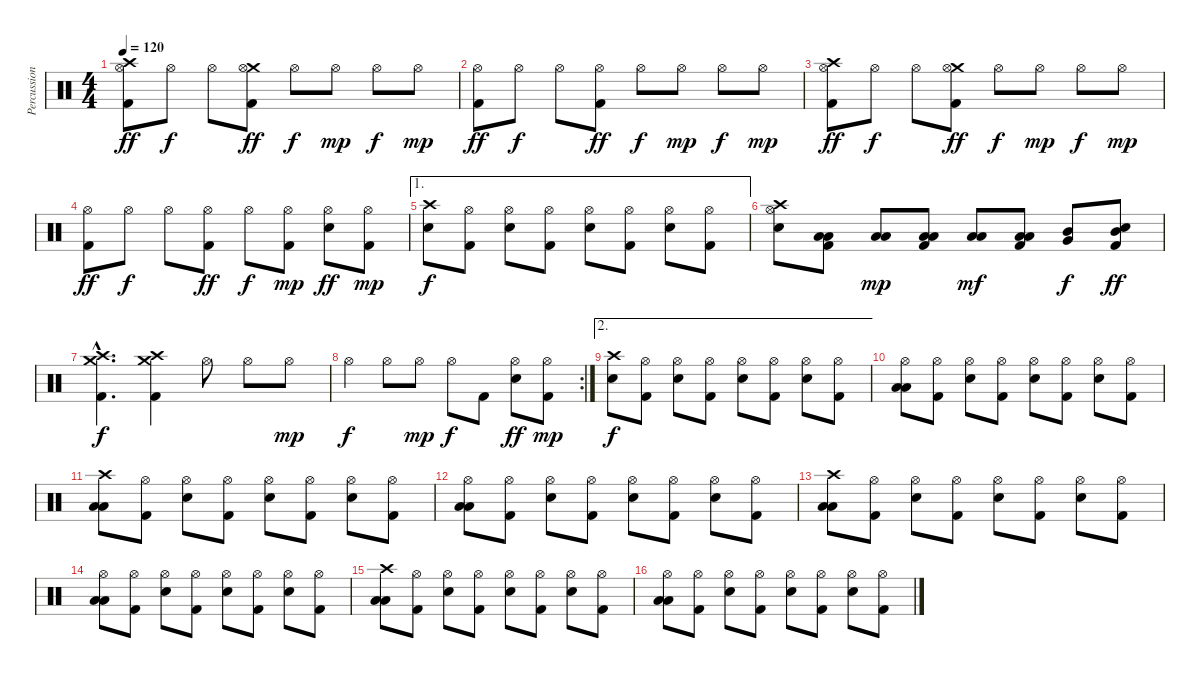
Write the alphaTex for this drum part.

\track ("Percussion" "Percussion") {instrument percussion}
\staff {score}
\articulation defaults
\ts (4 4)
\tempo 120
\clef neutral
\ks c
("Crash high (hit)" "Hi-Hat (open)" "Kick (hit) 2").8{dy ff} "Hi-Hat (open)".8{dy f} "Hi-Hat (open)".8 ("Crash medium (hit)" "Hi-Hat (open)" "Kick (hit) 2").8{dy ff} "Hi-Hat (open)".8{dy f} "Hi-Hat (open)".8{dy mp} "Hi-Hat (open)".8{dy f} "Hi-Hat (open)".8{dy mp} |
("Hi-Hat (open)" "Kick (hit) 2").8{dy ff} "Hi-Hat (open)".8{dy f} "Hi-Hat (open)".8 ("Hi-Hat (open)" "Kick (hit) 2").8{dy ff} "Hi-Hat (open)".8{dy f} "Hi-Hat (open)".8{dy mp} "Hi-Hat (open)".8{dy f} "Hi-Hat (open)".8{dy mp} |
("Crash high (hit)" "Hi-Hat (open)" "Kick (hit) 2").8{dy ff} "Hi-Hat (open)".8{dy f} "Hi-Hat (open)".8 ("Crash medium (hit)" "Hi-Hat (open)" "Kick (hit) 2").8{dy ff} "Hi-Hat (open)".8{dy f} "Hi-Hat (open)".8{dy mp} "Hi-Hat (open)".8{dy f} "Hi-Hat (open)".8{dy mp} |
("Hi-Hat (open)" "Kick (hit) 2").8{dy ff} "Hi-Hat (open)".8{dy f} "Hi-Hat (open)".8 ("Hi-Hat (open)" "Kick (hit) 2").8{dy ff} "Hi-Hat (open)".8{dy f} ("Hi-Hat (open)" "Kick (hit) 2").8{dy mp} ("Hi-Hat (open)" "Electric Snare (hit)").8{dy ff} ("Hi-Hat (open)" "Kick (hit) 2").8{dy mp} |
\ae 1
("Crash high (hit)" "Electric Snare (hit)").8{dy f} ("Hi-Hat (open)" "Kick (hit) 2").8 ("Hi-Hat (open)" "Electric Snare (hit)").8 ("Hi-Hat (open)" "Kick (hit) 2").8 ("Hi-Hat (open)" "Electric Snare (hit)").8 ("Hi-Hat (open)" "Kick (hit) 2").8 ("Hi-Hat (open)" "Electric Snare (hit)").8 ("Hi-Hat (open)" "Kick (hit) 2").8 |
("Crash high (hit)" "Hi-Hat (open)" "Electric Snare (hit)").8 ("Low Tom (hit)" "Low Floor Tom (hit)" "Kick (hit) 2").8 ("Low Tom (hit)" "Low Floor Tom (hit)").8{dy mp} ("Low Tom (hit)" "Low Floor Tom (hit)" "Kick (hit) 2").8 ("Low Tom (hit)" "Low Floor Tom (hit)").8{dy mf} ("Low Tom (hit)" "Low Floor Tom (hit)" "Kick (hit) 2").8 ("Mid Tom (hit)" "Very Low Tom (hit)").8{dy f} ("Electric Snare (hit)" "Mid Tom (hit)" "Kick (hit) 2").8{dy ff} |
("Crash high (hit)"{hac} "Crash medium (hit)"{hac} "Kick (hit) 2"{hac}).4{d dy f} ("Crash high (hit)" "Crash medium (hit)" "Kick (hit) 2").4 "Hi-Hat (open)".8 "Hi-Hat (open)".8 "Hi-Hat (open)".8{dy mp} |
\rc 2 "Hi-Hat (open)".4{dy f} "Hi-Hat (open)".8 "Hi-Hat (open)".8{dy mp} "Hi-Hat (open)".8{dy f} "Kick (hit) 2".8
("Hi-Hat (open)" "Electric Snare (hit)").8{dy ff} ("Hi-Hat (open)" "Kick (hit) 2").8{dy mp} |
\ae 2
("Crash high (hit)" "Electric Snare (hit)").8{dy f} ("Hi-Hat (open)" "Kick (hit) 2").8 ("Hi-Hat (open)" "Electric Snare (hit)").8 ("Hi-Hat (open)" "Kick (hit) 2").8 ("Hi-Hat (open)" "Electric Snare (hit)").8 ("Hi-Hat (open)" "Kick (hit) 2").8 ("Hi-Hat (open)" "Electric Snare (hit)").8 ("Hi-Hat (open)" "Kick (hit) 2").8 |
("Hi-Hat (open)" "Low Tom (hit)" "Low Floor Tom (hit)").8 ("Hi-Hat (open)" "Kick (hit) 2").8 ("Hi-Hat (open)" "Electric Snare (hit)").8 ("Hi-Hat (open)" "Kick (hit) 2").8 ("Hi-Hat (open)" "Electric Snare (hit)").8 ("Hi-Hat (open)" "Kick (hit) 2").8 ("Hi-Hat (open)" "Electric Snare (hit)").8 ("Hi-Hat (open)" "Kick (hit) 2").8 |
("Crash high (hit)" "Low Tom (hit)" "Low Floor Tom (hit)").8 ("Hi-Hat (open)" "Kick (hit) 2").8 ("Hi-Hat (open)" "Electric Snare (hit)").8 ("Hi-Hat (open)" "Kick (hit) 2").8 ("Hi-Hat (open)" "Electric Snare (hit)").8 ("Hi-Hat (open)" "Kick (hit) 2").8 ("Hi-Hat (open)" "Electric Snare (hit)").8 ("Hi-Hat (open)" "Kick (hit) 2").8 |
("Hi-Hat (open)" "Low Tom (hit)" "Low Floor Tom (hit)").8 ("Hi-Hat (open)" "Kick (hit) 2").8 ("Hi-Hat (open)" "Electric Snare (hit)").8 ("Hi-Hat (open)" "Kick (hit) 2").8 ("Hi-Hat (open)" "Electric Snare (hit)").8 ("Hi-Hat (open)" "Kick (hit) 2").8 ("Hi-Hat (open)" "Electric Snare (hit)").8 ("Hi-Hat (open)" "Kick (hit) 2").8 |
("Crash high (hit)" "Low Tom (hit)" "Low Floor Tom (hit)").8 ("Hi-Hat (open)" "Kick (hit) 2").8 ("Hi-Hat (open)" "Electric Snare (hit)").8 ("Hi-Hat (open)" "Kick (hit) 2").8 ("Hi-Hat (open)" "Electric Snare (hit)").8 ("Hi-Hat (open)" "Kick (hit) 2").8 ("Hi-Hat (open)" "Electric Snare (hit)").8 ("Hi-Hat (open)" "Kick (hit) 2").8 |
("Hi-Hat (open)" "Low Tom (hit)" "Low Floor Tom (hit)").8 ("Hi-Hat (open)" "Kick (hit) 2").8 ("Hi-Hat (open)" "Electric Snare (hit)").8 ("Hi-Hat (open)" "Kick (hit) 2").8 ("Hi-Hat (open)" "Electric Snare (hit)").8 ("Hi-Hat (open)" "Kick (hit) 2").8 ("Hi-Hat (open)" "Electric Snare (hit)").8 ("Hi-Hat (open)" "Kick (hit) 2").8 |
("Crash high (hit)" "Low Tom (hit)" "Low Floor Tom (hit)").8 ("Hi-Hat (open)" "Kick (hit) 2").8 ("Hi-Hat (open)" "Electric Snare (hit)").8 ("Hi-Hat (open)" "Kick (hit) 2").8 ("Hi-Hat (open)" "Electric Snare (hit)").8 ("Hi-Hat (open)" "Kick (hit) 2").8 ("Hi-Hat (open)" "Electric Snare (hit)").8 ("Hi-Hat (open)" "Kick (hit) 2").8 |
("Hi-Hat (open)" "Low Tom (hit)" "Low Floor Tom (hit)").8 ("Hi-Hat (open)" "Kick (hit) 2").8 ("Hi-Hat (open)" "Electric Snare (hit)").8 ("Hi-Hat (open)" "Kick (hit) 2").8 ("Hi-Hat (open)" "Electric Snare (hit)").8 ("Hi-Hat (open)" "Kick (hit) 2").8 ("Hi-Hat (open)" "Electric Snare (hit)").8 ("Hi-Hat (open)" "Kick (hit) 2").8
